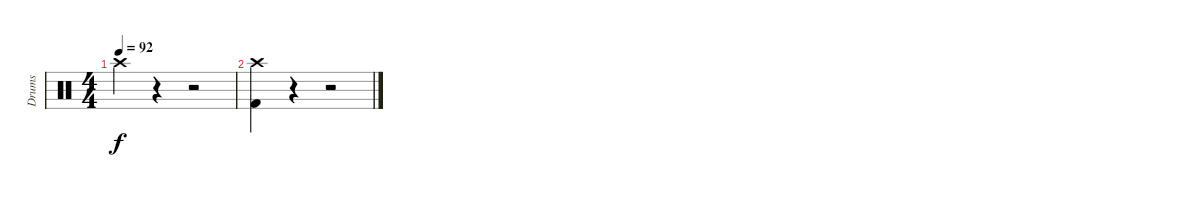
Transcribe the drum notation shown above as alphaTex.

\track ("Drums" "Drums") {instrument percussion}
\staff {score}
\articulation defaults
\ts (4 4)
\tempo 92
\clef neutral
\ks c "Crash high (hit)".4{dy f}
r.4 r.2 |
("Crash high (hit)" "Kick (hit) 2").4 r.4 r.2
